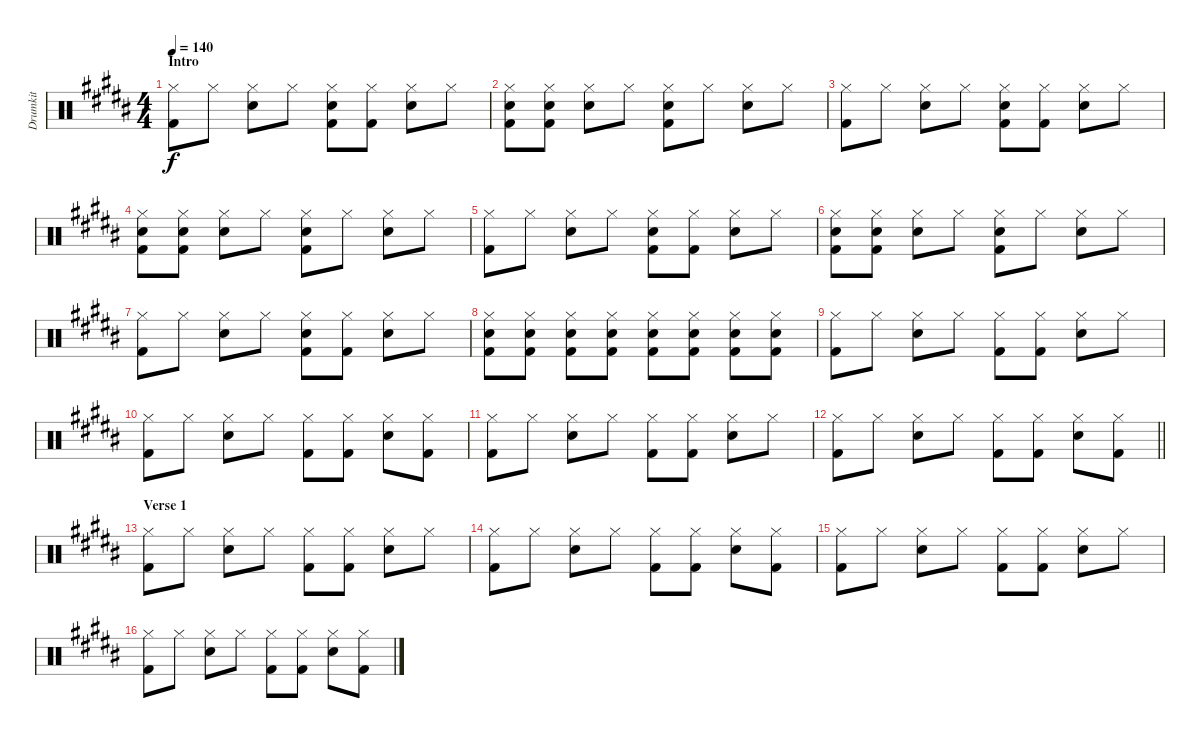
\track ("Drumkit" "Drumkit") {instrument percussion}
\staff {score}
\articulation defaults
\ts (4 4)
\section ("" "Intro")
\tempo 140
\clef neutral
\ks b
("Hi-Hat (closed)" "Kick (hit) 2").8{dy f} "Hi-Hat (closed)".8 ("Hi-Hat (closed)" "Snare (hit) 2").8 "Hi-Hat (closed)".8 ("Hi-Hat (closed)" "Snare (hit) 2" "Kick (hit) 2").8 ("Hi-Hat (closed)" "Kick (hit) 2").8 ("Hi-Hat (closed)" "Snare (hit) 2").8 "Hi-Hat (closed)".8 |
("Hi-Hat (closed)" "Snare (hit) 2" "Kick (hit) 2").8 ("Hi-Hat (closed)" "Snare (hit) 2" "Kick (hit) 2").8 ("Hi-Hat (closed)" "Snare (hit) 2").8 "Hi-Hat (closed)".8 ("Hi-Hat (closed)" "Snare (hit) 2" "Kick (hit) 2").8 "Hi-Hat (closed)".8 ("Hi-Hat (closed)" "Snare (hit) 2").8 "Hi-Hat (closed)".8 |
("Hi-Hat (closed)" "Kick (hit) 2").8 "Hi-Hat (closed)".8 ("Hi-Hat (closed)" "Snare (hit) 2").8 "Hi-Hat (closed)".8 ("Hi-Hat (closed)" "Snare (hit) 2" "Kick (hit) 2").8 ("Hi-Hat (closed)" "Kick (hit) 2").8 ("Hi-Hat (closed)" "Snare (hit) 2").8 "Hi-Hat (closed)".8 |
("Hi-Hat (closed)" "Snare (hit) 2" "Kick (hit) 2").8 ("Hi-Hat (closed)" "Snare (hit) 2" "Kick (hit) 2").8 ("Hi-Hat (closed)" "Snare (hit) 2").8 "Hi-Hat (closed)".8 ("Hi-Hat (closed)" "Snare (hit) 2" "Kick (hit) 2").8 "Hi-Hat (closed)".8 ("Hi-Hat (closed)" "Snare (hit) 2").8 "Hi-Hat (closed)".8 |
("Hi-Hat (closed)" "Kick (hit) 2").8 "Hi-Hat (closed)".8 ("Hi-Hat (closed)" "Snare (hit) 2").8 "Hi-Hat (closed)".8 ("Hi-Hat (closed)" "Snare (hit) 2" "Kick (hit) 2").8 ("Hi-Hat (closed)" "Kick (hit) 2").8 ("Hi-Hat (closed)" "Snare (hit) 2").8 "Hi-Hat (closed)".8 |
("Hi-Hat (closed)" "Snare (hit) 2" "Kick (hit) 2").8 ("Hi-Hat (closed)" "Snare (hit) 2" "Kick (hit) 2").8 ("Hi-Hat (closed)" "Snare (hit) 2").8 "Hi-Hat (closed)".8 ("Hi-Hat (closed)" "Snare (hit) 2" "Kick (hit) 2").8 "Hi-Hat (closed)".8 ("Hi-Hat (closed)" "Snare (hit) 2").8 "Hi-Hat (closed)".8 |
("Hi-Hat (closed)" "Kick (hit) 2").8 "Hi-Hat (closed)".8 ("Hi-Hat (closed)" "Snare (hit) 2").8 "Hi-Hat (closed)".8 ("Hi-Hat (closed)" "Snare (hit) 2" "Kick (hit) 2").8 ("Hi-Hat (closed)" "Kick (hit) 2").8 ("Hi-Hat (closed)" "Snare (hit) 2").8 "Hi-Hat (closed)".8 |
("Hi-Hat (closed)" "Snare (hit) 2" "Kick (hit) 2").8 ("Hi-Hat (closed)" "Snare (hit) 2" "Kick (hit) 2").8 ("Hi-Hat (closed)" "Snare (hit) 2" "Kick (hit) 2").8 ("Hi-Hat (closed)" "Snare (hit) 2" "Kick (hit) 2").8 ("Hi-Hat (closed)" "Snare (hit) 2" "Kick (hit) 2").8 ("Hi-Hat (closed)" "Snare (hit) 2" "Kick (hit) 2").8 ("Hi-Hat (closed)" "Snare (hit) 2" "Kick (hit) 2").8 ("Hi-Hat (closed)" "Snare (hit) 2" "Kick (hit) 2").8 |
("Hi-Hat (closed)" "Kick (hit) 2").8 "Hi-Hat (closed)".8 ("Hi-Hat (closed)" "Snare (hit) 2").8 "Hi-Hat (closed)".8 ("Hi-Hat (closed)" "Kick (hit) 2").8 ("Hi-Hat (closed)" "Kick (hit) 2").8 ("Hi-Hat (closed)" "Snare (hit) 2").8 "Hi-Hat (closed)".8 |
("Hi-Hat (closed)" "Kick (hit) 2").8 "Hi-Hat (closed)".8 ("Hi-Hat (closed)" "Snare (hit) 2").8 "Hi-Hat (closed)".8 ("Hi-Hat (closed)" "Kick (hit) 2").8 ("Hi-Hat (closed)" "Kick (hit) 2").8 ("Hi-Hat (closed)" "Snare (hit) 2").8 ("Hi-Hat (closed)" "Kick (hit) 2").8 |
("Hi-Hat (closed)" "Kick (hit) 2").8 "Hi-Hat (closed)".8 ("Hi-Hat (closed)" "Snare (hit) 2").8 "Hi-Hat (closed)".8 ("Hi-Hat (closed)" "Kick (hit) 2").8 ("Hi-Hat (closed)" "Kick (hit) 2").8 ("Hi-Hat (closed)" "Snare (hit) 2").8 "Hi-Hat (closed)".8 |
\barLineRight lightlight
("Hi-Hat (closed)" "Kick (hit) 2").8 "Hi-Hat (closed)".8 ("Hi-Hat (closed)" "Snare (hit) 2").8 "Hi-Hat (closed)".8 ("Hi-Hat (closed)" "Kick (hit) 2").8 ("Hi-Hat (closed)" "Kick (hit) 2").8 ("Hi-Hat (closed)" "Snare (hit) 2").8 ("Hi-Hat (closed)" "Kick (hit) 2").8 |
\section ("" "Verse 1")
("Hi-Hat (closed)" "Kick (hit) 2").8 "Hi-Hat (closed)".8 ("Hi-Hat (closed)" "Snare (hit) 2").8 "Hi-Hat (closed)".8 ("Hi-Hat (closed)" "Kick (hit) 2").8 ("Hi-Hat (closed)" "Kick (hit) 2").8 ("Hi-Hat (closed)" "Snare (hit) 2").8 "Hi-Hat (closed)".8 |
("Hi-Hat (closed)" "Kick (hit) 2").8 "Hi-Hat (closed)".8 ("Hi-Hat (closed)" "Snare (hit) 2").8 "Hi-Hat (closed)".8 ("Hi-Hat (closed)" "Kick (hit) 2").8 ("Hi-Hat (closed)" "Kick (hit) 2").8 ("Hi-Hat (closed)" "Snare (hit) 2").8 ("Hi-Hat (closed)" "Kick (hit) 2").8 |
("Hi-Hat (closed)" "Kick (hit) 2").8 "Hi-Hat (closed)".8 ("Hi-Hat (closed)" "Snare (hit) 2").8 "Hi-Hat (closed)".8 ("Hi-Hat (closed)" "Kick (hit) 2").8 ("Hi-Hat (closed)" "Kick (hit) 2").8 ("Hi-Hat (closed)" "Snare (hit) 2").8 "Hi-Hat (closed)".8 |
("Hi-Hat (closed)" "Kick (hit) 2").8 "Hi-Hat (closed)".8 ("Hi-Hat (closed)" "Snare (hit) 2").8 "Hi-Hat (closed)".8 ("Hi-Hat (closed)" "Kick (hit) 2").8 ("Hi-Hat (closed)" "Kick (hit) 2").8 ("Hi-Hat (closed)" "Snare (hit) 2").8 ("Hi-Hat (closed)" "Kick (hit) 2").8
